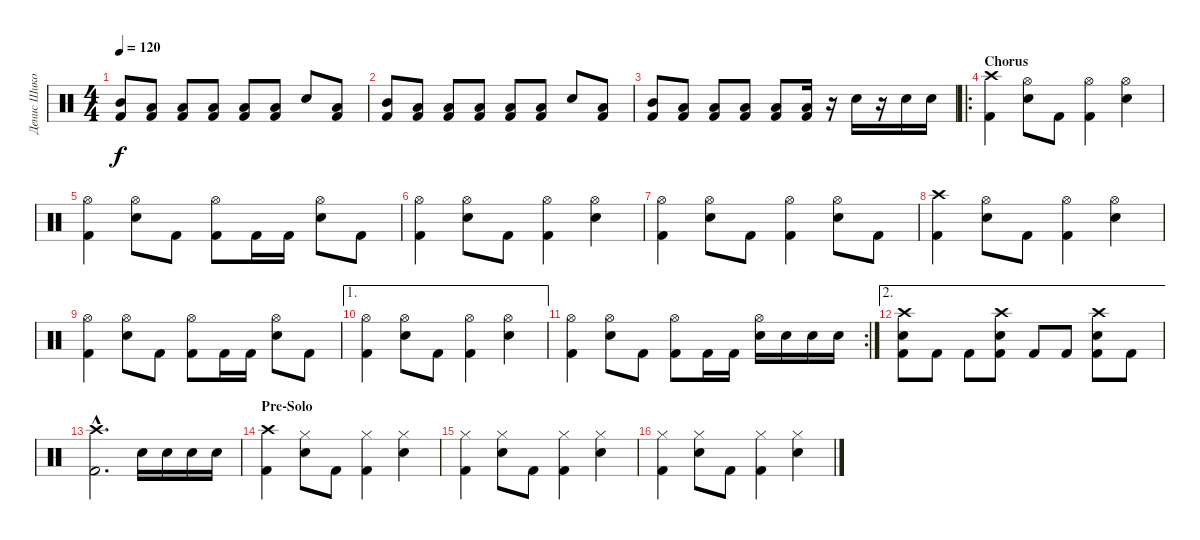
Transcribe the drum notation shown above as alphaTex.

\track ("Денис Шиков" "Денис Шико") {instrument percussion}
\staff {score}
\articulation defaults
\ts (4 4)
\tempo 120
\clef neutral
\ks c
("Mid Tom (hit)" "Kick (hit) 2").8{dy f} ("Low Floor Tom (hit)" "Kick (hit) 2").8 ("Low Floor Tom (hit)" "Kick (hit) 2").8 ("Low Tom (hit)" "Kick (hit) 2").8 ("Low Floor Tom (hit)" "Kick (hit) 2").8 ("Low Floor Tom (hit)" "Kick (hit) 2").8 "Electric Snare (hit)".8 ("Low Floor Tom (hit)" "Kick (hit) 2").8 |
("Mid Tom (hit)" "Kick (hit) 2").8 ("Low Floor Tom (hit)" "Kick (hit) 2").8 ("Low Floor Tom (hit)" "Kick (hit) 2").8 ("Low Tom (hit)" "Kick (hit) 2").8 ("Low Floor Tom (hit)" "Kick (hit) 2").8 ("Low Floor Tom (hit)" "Kick (hit) 2").8 "Electric Snare (hit)".8 ("Low Floor Tom (hit)" "Kick (hit) 2").8 |
("Mid Tom (hit)" "Kick (hit) 2").8 ("Low Floor Tom (hit)" "Kick (hit) 2").8 ("Low Floor Tom (hit)" "Kick (hit) 2").8 ("Low Tom (hit)" "Kick (hit) 2").8 ("Low Floor Tom (hit)" "Kick (hit) 2").8 ("Low Floor Tom (hit)" "Kick (hit) 2").16 r.16 "Electric Snare (hit)".16 r.16 "Electric Snare (hit)".16 "Electric Snare (hit)".16 |
\ro
\section ("" "Chorus")
("Crash high (hit)" "Kick (hit) 2").4 ("Hi-Hat (open)" "Electric Snare (hit)").8 "Kick (hit) 2".8 ("Hi-Hat (open)" "Kick (hit) 2").4 ("Hi-Hat (open)" "Electric Snare (hit)").4 |
("Hi-Hat (open)" "Kick (hit) 2").4 ("Hi-Hat (open)" "Electric Snare (hit)").8 "Kick (hit) 2".8 ("Hi-Hat (open)" "Kick (hit) 2").8 "Kick (hit) 2".16 "Kick (hit) 2".16 ("Hi-Hat (open)" "Electric Snare (hit)").8 "Kick (hit) 2".8 |
("Hi-Hat (open)" "Kick (hit) 2").4 ("Hi-Hat (open)" "Electric Snare (hit)").8 "Kick (hit) 2".8 ("Hi-Hat (open)" "Kick (hit) 2").4 ("Hi-Hat (open)" "Electric Snare (hit)").4 |
("Hi-Hat (open)" "Kick (hit) 2").4 ("Hi-Hat (open)" "Electric Snare (hit)").8 "Kick (hit) 2".8 ("Hi-Hat (open)" "Kick (hit) 2").4 ("Hi-Hat (open)" "Electric Snare (hit)").8 "Kick (hit) 2".8 |
("Crash high (hit)" "Kick (hit) 2").4 ("Hi-Hat (open)" "Electric Snare (hit)").8 "Kick (hit) 2".8 ("Hi-Hat (open)" "Kick (hit) 2").4 ("Hi-Hat (open)" "Electric Snare (hit)").4 |
("Hi-Hat (open)" "Kick (hit) 2").4 ("Hi-Hat (open)" "Electric Snare (hit)").8 "Kick (hit) 2".8 ("Hi-Hat (open)" "Kick (hit) 2").8 "Kick (hit) 2".16 "Kick (hit) 2".16 ("Hi-Hat (open)" "Electric Snare (hit)").8 "Kick (hit) 2".8 |
\ae 1
("Hi-Hat (open)" "Kick (hit) 2").4 ("Hi-Hat (open)" "Electric Snare (hit)").8 "Kick (hit) 2".8 ("Hi-Hat (open)" "Kick (hit) 2").4 ("Hi-Hat (open)" "Electric Snare (hit)").4 |
\rc 2
("Hi-Hat (open)" "Kick (hit) 2").4 ("Hi-Hat (open)" "Electric Snare (hit)").8 "Kick (hit) 2".8 ("Hi-Hat (open)" "Kick (hit) 2").8 "Kick (hit) 2".16 "Kick (hit) 2".16 ("Hi-Hat (open)" "Electric Snare (hit)").16 "Electric Snare (hit)".16 "Electric Snare (hit)".16 "Electric Snare (hit)".16 |
\ae 2
("Crash high (hit)" "Electric Snare (hit)" "Kick (hit) 2").8 "Kick (hit) 2".8 "Kick (hit) 2".8 ("Crash high (hit)" "Electric Snare (hit)" "Kick (hit) 2").8 "Kick (hit) 2".8 "Kick (hit) 2".8 ("Crash high (hit)" "Electric Snare (hit)" "Kick (hit) 2").8 "Kick (hit) 2".8 |
("Crash high (hit)"{hac} "Kick (hit) 2"{hac}).2{d} "Electric Snare (hit)".16 "Electric Snare (hit)".16 "Electric Snare (hit)".16 "Electric Snare (hit)".16 |
\section ("" "Pre-Solo")
("Crash high (hit)" "Kick (hit) 2").4 ("Hi-Hat (closed)" "Electric Snare (hit)").8 "Kick (hit) 2".8 ("Hi-Hat (closed)" "Kick (hit) 2").4 ("Hi-Hat (closed)" "Electric Snare (hit)").4 |
("Hi-Hat (closed)" "Kick (hit) 2").4 ("Hi-Hat (closed)" "Electric Snare (hit)").8 "Kick (hit) 2".8 ("Hi-Hat (closed)" "Kick (hit) 2").4 ("Hi-Hat (closed)" "Electric Snare (hit)").4 |
("Hi-Hat (closed)" "Kick (hit) 2").4 ("Hi-Hat (closed)" "Electric Snare (hit)").8 "Kick (hit) 2".8 ("Hi-Hat (closed)" "Kick (hit) 2").4 ("Hi-Hat (closed)" "Electric Snare (hit)").4
